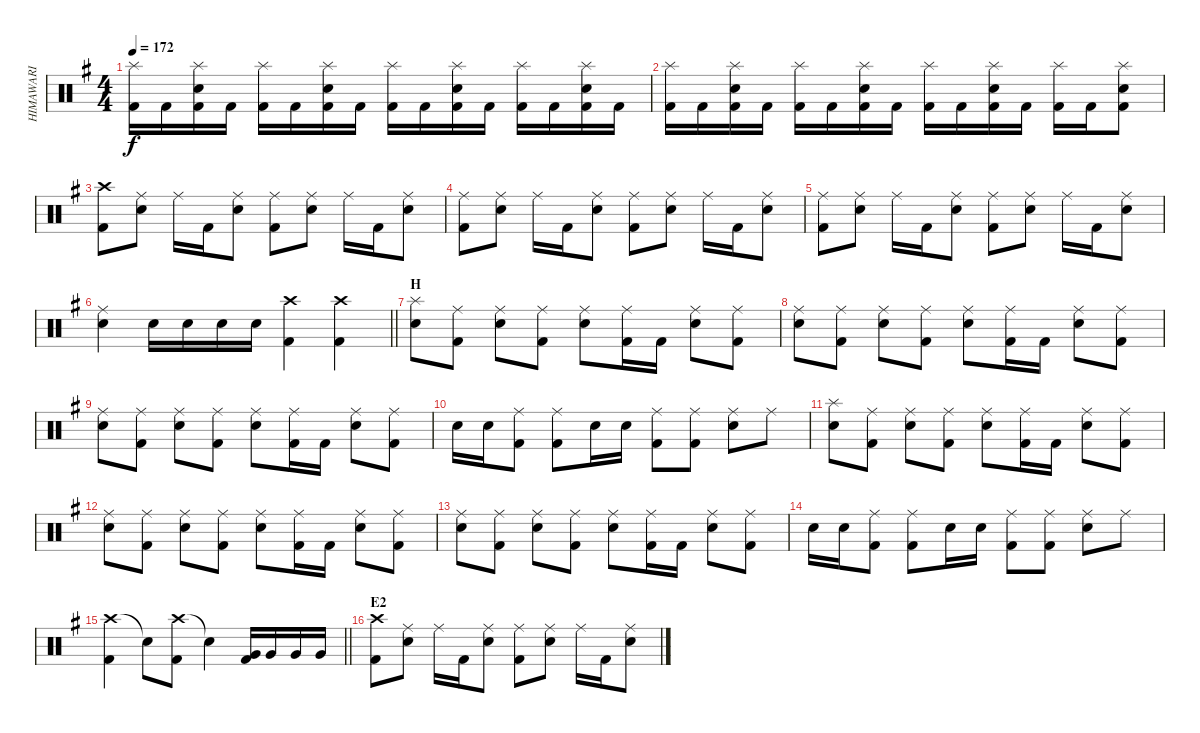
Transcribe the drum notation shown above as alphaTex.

\track ("HIMAWARI" "HIMAWARI") {instrument percussion}
\staff {score}
\articulation defaults
\ts (4 4)
\tempo 172
\clef neutral
\ks g
("Splash (hit)" "Kick (hit) 2").16{dy f} "Kick (hit) 2".16 ("Splash (hit)" "Kick (hit) 2" "Snare (hit) 2").16 "Kick (hit) 2".16 ("Splash (hit)" "Kick (hit) 2").16 "Kick (hit) 2".16 ("Splash (hit)" "Kick (hit) 2" "Snare (hit) 2").16 "Kick (hit) 2".16 ("Splash (hit)" "Kick (hit) 2").16 "Kick (hit) 2".16 ("Splash (hit)" "Kick (hit) 2" "Snare (hit) 2").16 "Kick (hit) 2".16 ("Splash (hit)" "Kick (hit) 2").16 "Kick (hit) 2".16 ("Splash (hit)" "Kick (hit) 2" "Snare (hit) 2").16 "Kick (hit) 2".16 |
("Splash (hit)" "Kick (hit) 2").16 "Kick (hit) 2".16 ("Splash (hit)" "Kick (hit) 2" "Snare (hit) 2").16 "Kick (hit) 2".16 ("Splash (hit)" "Kick (hit) 2").16 "Kick (hit) 2".16 ("Splash (hit)" "Kick (hit) 2" "Snare (hit) 2").16 "Kick (hit) 2".16 ("Splash (hit)" "Kick (hit) 2").16 "Kick (hit) 2".16 ("Splash (hit)" "Kick (hit) 2" "Snare (hit) 2").16 "Kick (hit) 2".16 ("Splash (hit)" "Kick (hit) 2").16 "Kick (hit) 2".16 ("Splash (hit)" "Kick (hit) 2" "Snare (hit) 2").8 |
("Crash high (hit)" "Kick (hit) 2").8 ("Ride (middle)" "Snare (hit) 2").8 "Ride (middle)".16 "Kick (hit) 2".16 ("Ride (middle)" "Snare (hit) 2").8 ("Ride (middle)" "Kick (hit) 2").8 ("Ride (middle)" "Snare (hit) 2").8 "Ride (middle)".16 "Kick (hit) 2".16 ("Ride (middle)" "Snare (hit) 2").8 |
("Ride (middle)" "Kick (hit) 2").8 ("Ride (middle)" "Snare (hit) 2").8 "Ride (middle)".16 "Kick (hit) 2".16 ("Ride (middle)" "Snare (hit) 2").8 ("Ride (middle)" "Kick (hit) 2").8 ("Ride (middle)" "Snare (hit) 2").8 "Ride (middle)".16 "Kick (hit) 2".16 ("Ride (middle)" "Snare (hit) 2").8 |
("Ride (middle)" "Kick (hit) 2").8 ("Ride (middle)" "Snare (hit) 2").8 "Ride (middle)".16 "Kick (hit) 2".16 ("Ride (middle)" "Snare (hit) 2").8 ("Ride (middle)" "Kick (hit) 2").8 ("Ride (middle)" "Snare (hit) 2").8 "Ride (middle)".16 "Kick (hit) 2".16 ("Ride (middle)" "Snare (hit) 2").8 |
\barLineRight lightlight
("Ride (middle)" "Snare (hit) 2").4 "Snare (hit) 2".16 "Snare (hit) 2".16 "Snare (hit) 2".16 "Snare (hit) 2".16 ("Crash high (hit)" "Kick (hit) 2").4 ("Crash high (hit)" "Kick (hit) 2").4 |
\section ("" "H")
("Splash (hit)" "Snare (hit) 2").8 ("Ride (middle)" "Kick (hit) 2").8 ("Ride (middle)" "Snare (hit) 2").8 ("Ride (middle)" "Kick (hit) 2").8 ("Ride (middle)" "Snare (hit) 2").8 ("Ride (middle)" "Kick (hit) 2").16 "Kick (hit) 2".16 ("Ride (middle)" "Snare (hit) 2").8 ("Ride (middle)" "Kick (hit) 2").8 |
("Ride (middle)" "Snare (hit) 2").8 ("Ride (middle)" "Kick (hit) 2").8 ("Ride (middle)" "Snare (hit) 2").8 ("Ride (middle)" "Kick (hit) 2").8 ("Ride (middle)" "Snare (hit) 2").8 ("Ride (middle)" "Kick (hit) 2").16 "Kick (hit) 2".16 ("Ride (middle)" "Snare (hit) 2").8 ("Ride (middle)" "Kick (hit) 2").8 |
("Ride (middle)" "Snare (hit) 2").8 ("Ride (middle)" "Kick (hit) 2").8 ("Ride (middle)" "Snare (hit) 2").8 ("Ride (middle)" "Kick (hit) 2").8 ("Ride (middle)" "Snare (hit) 2").8 ("Ride (middle)" "Kick (hit) 2").16 "Kick (hit) 2".16 ("Ride (middle)" "Snare (hit) 2").8 ("Ride (middle)" "Kick (hit) 2").8 |
"Snare (hit) 2".16 "Snare (hit) 2".16 ("Ride (middle)" "Kick (hit) 2").8 ("Ride (middle)" "Kick (hit) 2").8 "Snare (hit) 2".16 "Snare (hit) 2".16 ("Ride (middle)" "Kick (hit) 2").8 ("Ride (middle)" "Kick (hit) 2").8 ("Ride (middle)" "Snare (hit) 2").8 "Ride (middle)".8 |
("Splash (hit)" "Snare (hit) 2").8 ("Ride (middle)" "Kick (hit) 2").8 ("Ride (middle)" "Snare (hit) 2").8 ("Ride (middle)" "Kick (hit) 2").8 ("Ride (middle)" "Snare (hit) 2").8 ("Ride (middle)" "Kick (hit) 2").16 "Kick (hit) 2".16 ("Ride (middle)" "Snare (hit) 2").8 ("Ride (middle)" "Kick (hit) 2").8 |
("Ride (middle)" "Snare (hit) 2").8 ("Ride (middle)" "Kick (hit) 2").8 ("Ride (middle)" "Snare (hit) 2").8 ("Ride (middle)" "Kick (hit) 2").8 ("Ride (middle)" "Snare (hit) 2").8 ("Ride (middle)" "Kick (hit) 2").16 "Kick (hit) 2".16 ("Ride (middle)" "Snare (hit) 2").8 ("Ride (middle)" "Kick (hit) 2").8 |
("Ride (middle)" "Snare (hit) 2").8 ("Ride (middle)" "Kick (hit) 2").8 ("Ride (middle)" "Snare (hit) 2").8 ("Ride (middle)" "Kick (hit) 2").8 ("Ride (middle)" "Snare (hit) 2").8 ("Ride (middle)" "Kick (hit) 2").16 "Kick (hit) 2".16 ("Ride (middle)" "Snare (hit) 2").8 ("Ride (middle)" "Kick (hit) 2").8 |
"Snare (hit) 2".16 "Snare (hit) 2".16 ("Ride (middle)" "Kick (hit) 2").8 ("Ride (middle)" "Kick (hit) 2").8 "Snare (hit) 2".16 "Snare (hit) 2".16 ("Ride (middle)" "Kick (hit) 2").8 ("Ride (middle)" "Kick (hit) 2").8 ("Ride (middle)" "Snare (hit) 2").8 "Ride (middle)".8 |
\barLineRight lightlight
("Crash high (hit)" "Kick (hit) 2").4 "Snare (hit)"{t}.8 ("Crash high (hit)" "Kick (hit) 2").8 "Snare (hit)"{t}.4 ("Very Low Tom (hit)" "Kick (hit) 2").16 "Very Low Tom (hit)".16 "Very Low Tom (hit)".16 "Very Low Tom (hit)".16 |
\section ("" "E2")
("Crash high (hit)" "Kick (hit) 2").8 ("Ride (middle)" "Snare (hit) 2").8 "Ride (middle)".16 "Kick (hit) 2".16 ("Ride (middle)" "Snare (hit) 2").8 ("Ride (middle)" "Kick (hit) 2").8 ("Ride (middle)" "Snare (hit) 2").8 "Ride (middle)".16 "Kick (hit) 2".16 ("Ride (middle)" "Snare (hit) 2").8
